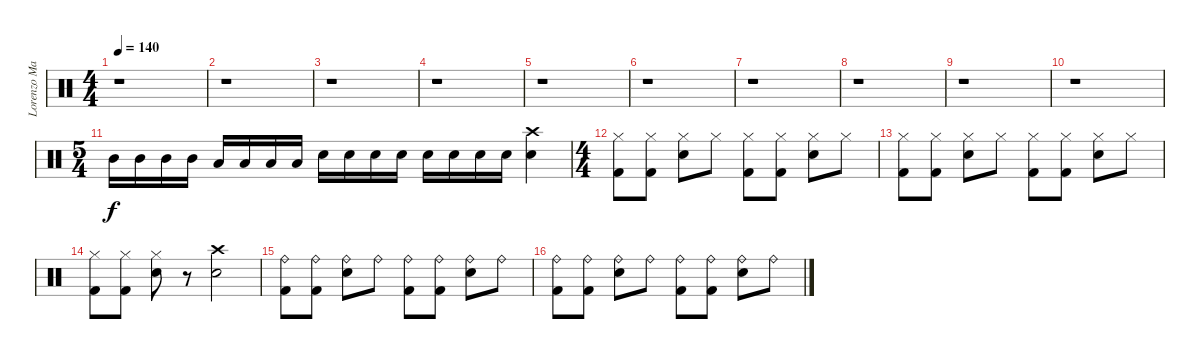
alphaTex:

\track ("Lorenzo Marcelloni" "Lorenzo Ma") {instrument percussion}
\staff {score}
\articulation defaults
\ts (4 4)
\tempo 140
\clef neutral
\ks c
r.1{dy f} |
r.1 |
r.1 |
r.1 |
r.1 |
r.1 |
r.1 |
r.1 |
r.1 |
r.1 |
\ts (5 4)
"Mid Tom (hit)".16 "Mid Tom (hit)".16 "Mid Tom (hit)".16 "Mid Tom (hit)".16 "Low Tom (hit)".16 "Low Tom (hit)".16 "Low Tom (hit)".16 "Low Tom (hit)".16 "Electric Snare (hit)".16 "Electric Snare (hit)".16 "Electric Snare (hit)".16 "Electric Snare (hit)".16 "Electric Snare (hit)".16 "Electric Snare (hit)".16 "Electric Snare (hit)".16 "Electric Snare (hit)".16 ("Crash high (hit)" "Electric Snare (hit)").4 |
\ts (4 4)
("Hi-Hat (closed)" "Kick (hit) 2").8 ("Hi-Hat (closed)" "Kick (hit) 2").8 ("Hi-Hat (closed)" "Electric Snare (hit)").8 "Hi-Hat (closed)".8 ("Hi-Hat (closed)" "Kick (hit) 2").8 ("Hi-Hat (closed)" "Kick (hit) 2").8 ("Hi-Hat (closed)" "Electric Snare (hit)").8 "Hi-Hat (closed)".8 |
("Hi-Hat (closed)" "Kick (hit) 2").8 ("Hi-Hat (closed)" "Kick (hit) 2").8 ("Hi-Hat (closed)" "Electric Snare (hit)").8 "Hi-Hat (closed)".8 ("Hi-Hat (closed)" "Kick (hit) 2").8 ("Hi-Hat (closed)" "Kick (hit) 2").8 ("Hi-Hat (closed)" "Electric Snare (hit)").8 "Hi-Hat (closed)".8 |
("Hi-Hat (closed)" "Kick (hit) 2").8 ("Hi-Hat (closed)" "Kick (hit) 2").8 ("Hi-Hat (closed)" "Electric Snare (hit)").8 r.8 ("Crash high (hit)" "Electric Snare (hit)").2 |
("Ride (bell)" "Kick (hit) 2").8 ("Ride (bell)" "Kick (hit) 2").8 ("Ride (bell)" "Electric Snare (hit)").8 "Ride (bell)".8 ("Ride (bell)" "Kick (hit) 2").8 ("Ride (bell)" "Kick (hit) 2").8 ("Ride (bell)" "Electric Snare (hit)").8 "Ride (bell)".8 |
("Ride (bell)" "Kick (hit) 2").8 ("Ride (bell)" "Kick (hit) 2").8 ("Ride (bell)" "Electric Snare (hit)").8 "Ride (bell)".8 ("Ride (bell)" "Kick (hit) 2").8 ("Ride (bell)" "Kick (hit) 2").8 ("Ride (bell)" "Electric Snare (hit)").8 "Ride (bell)".8
